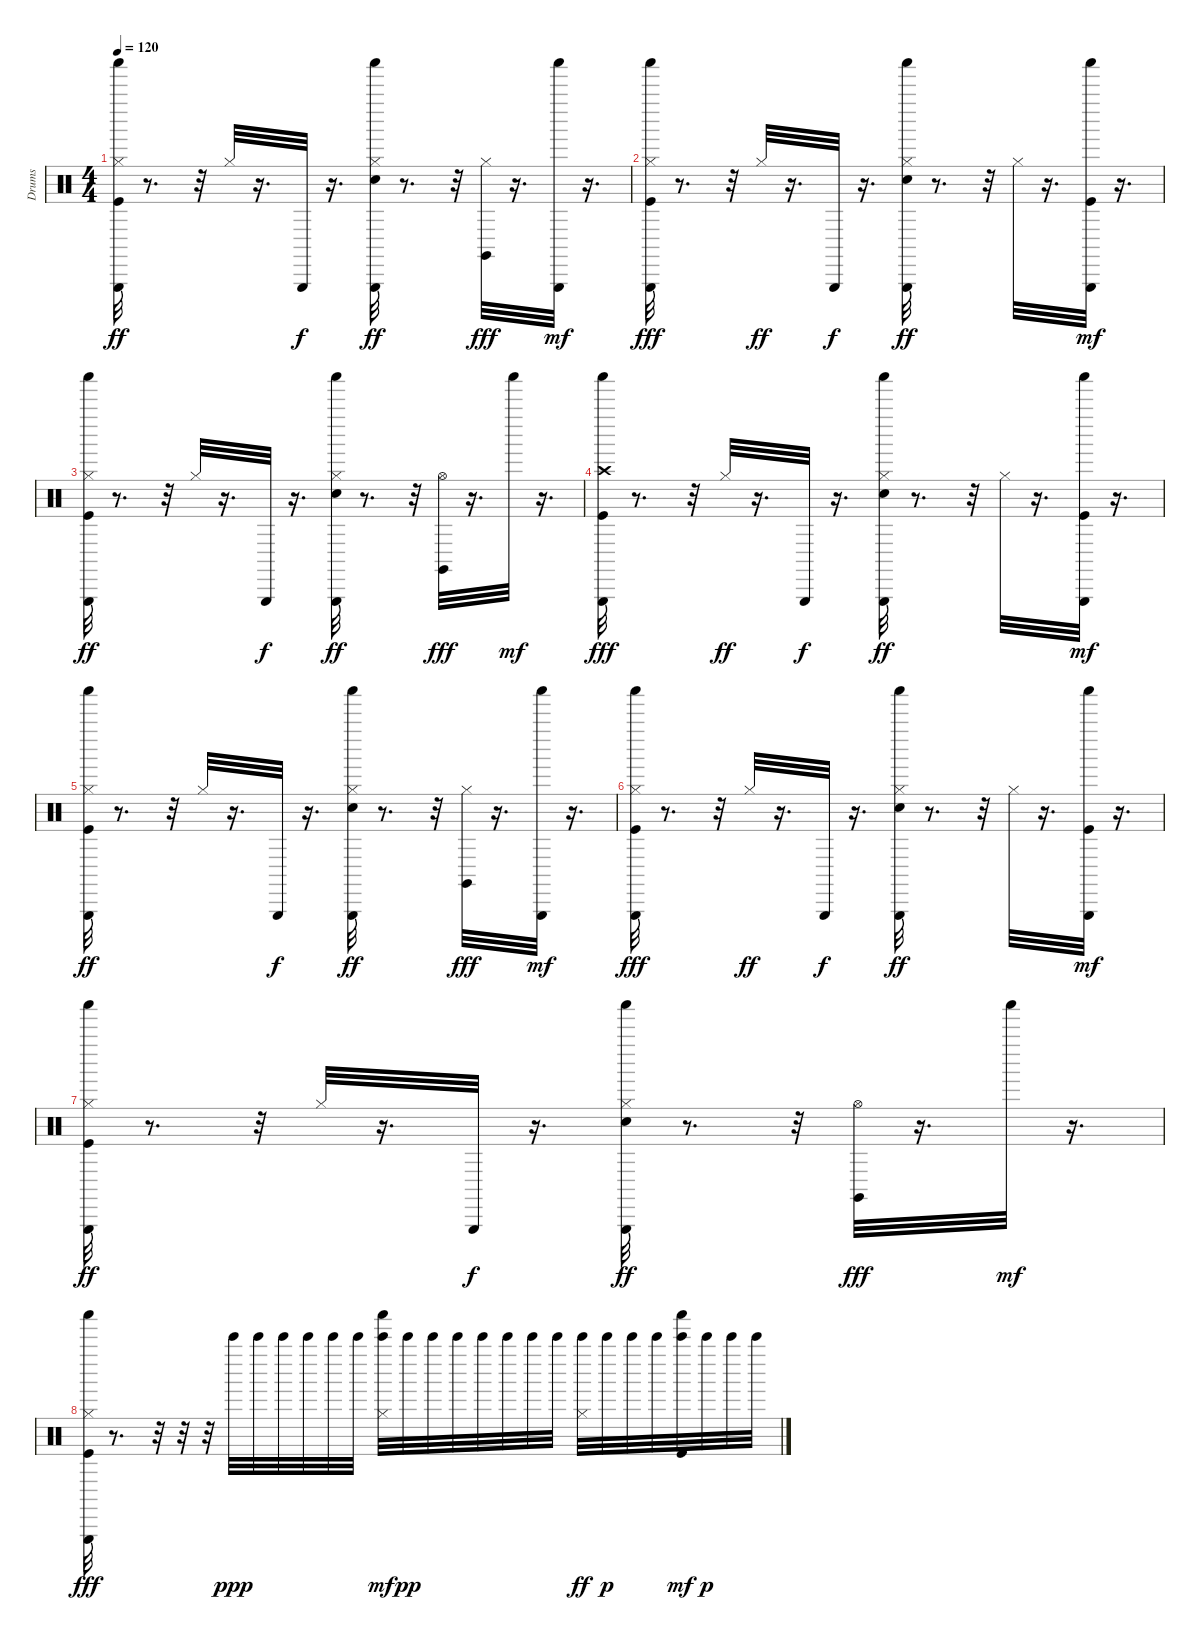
\track ("Drums" "Drums") {instrument percussion}
\staff {score}
\articulation defaults
\ts (4 4)
\tempo 120
\clef neutral
\ks c
("Shaker (hit)" "Triangle (hit)" "Kick (hit)" "Hi-Hat (closed)").32{dy ff} r.8{d} r.32 "Hi-Hat (closed)".32 r.16{d} "Triangle (hit)".32{dy f} r.16{d} ("Shaker (hit)" "Triangle (hit)" "Electric Snare (hit)" "Hi-Hat (closed)").32{dy ff} r.8{d} r.32 ("Hi-Hat (closed)" "Claves (hit)").32{dy fff} r.16{d} ("Shaker (hit)" "Triangle (hit)").32{dy mf} r.16{d} |
("Shaker (hit)" "Triangle (hit)" "Hi-Hat (closed)" "Kick (hit)").32{dy fff} r.8{d} r.32 "Hi-Hat (closed)".32{dy ff} r.16{d} "Triangle (hit)".32{dy f} r.16{d} ("Shaker (hit)" "Triangle (hit)" "Electric Snare (hit)" "Hi-Hat (closed)").32{dy ff} r.8{d} r.32 "Hi-Hat (closed)".32 r.16{d} ("Kick (hit)" "Shaker (hit)" "Triangle (hit)").32{dy mf} r.16{d} |
("Shaker (hit)" "Triangle (hit)" "Kick (hit)" "Hi-Hat (closed)").32{dy ff} r.8{d} r.32 "Hi-Hat (closed)".32 r.16{d} "Triangle (hit)".32{dy f} r.16{d} ("Shaker (hit)" "Triangle (hit)" "Electric Snare (hit)" "Hi-Hat (closed)").32{dy ff} r.8{d} r.32 ("Hi-Hat (open)" "Claves (hit)").32{dy fff} r.16{d} "Shaker (hit)".32{dy mf} r.16{d} |
("Crash high (hit)" "Shaker (hit)" "Triangle (hit)" "Kick (hit)").32{dy fff} r.8{d} r.32 "Hi-Hat (closed)".32{dy ff} r.16{d} "Triangle (hit)".32{dy f} r.16{d} ("Shaker (hit)" "Triangle (hit)" "Electric Snare (hit)" "Hi-Hat (closed)").32{dy ff} r.8{d} r.32 "Hi-Hat (closed)".32 r.16{d} ("Kick (hit)" "Shaker (hit)" "Triangle (hit)").32{dy mf} r.16{d} |
("Shaker (hit)" "Triangle (hit)" "Kick (hit)" "Hi-Hat (closed)").32{dy ff} r.8{d} r.32 "Hi-Hat (closed)".32 r.16{d} "Triangle (hit)".32{dy f} r.16{d} ("Shaker (hit)" "Triangle (hit)" "Electric Snare (hit)" "Hi-Hat (closed)").32{dy ff} r.8{d} r.32 ("Hi-Hat (closed)" "Claves (hit)").32{dy fff} r.16{d} ("Shaker (hit)" "Triangle (hit)").32{dy mf} r.16{d} |
("Shaker (hit)" "Triangle (hit)" "Hi-Hat (closed)" "Kick (hit)").32{dy fff} r.8{d} r.32 "Hi-Hat (closed)".32{dy ff} r.16{d} "Triangle (hit)".32{dy f} r.16{d} ("Shaker (hit)" "Triangle (hit)" "Electric Snare (hit)" "Hi-Hat (closed)").32{dy ff} r.8{d} r.32 "Hi-Hat (closed)".32 r.16{d} ("Kick (hit)" "Shaker (hit)" "Triangle (hit)").32{dy mf} r.16{d} |
("Shaker (hit)" "Triangle (hit)" "Kick (hit)" "Hi-Hat (closed)").32{dy ff} r.8{d} r.32 "Hi-Hat (closed)".32 r.16{d} "Triangle (hit)".32{dy f} r.16{d} ("Shaker (hit)" "Triangle (hit)" "Electric Snare (hit)" "Hi-Hat (closed)").32{dy ff} r.8{d} r.32 ("Hi-Hat (open)" "Claves (hit)").32{dy fff} r.16{d} "Shaker (hit)".32{dy mf} r.16{d} |
("Shaker (hit)" "Triangle (hit)" "Hi-Hat (closed)" "Kick (hit)").32{dy fff} r.8{d} r.32 r.32 r.32 "Bell Tree (hit)".32{dy ppp} "Bell Tree (hit)".32 "Bell Tree (hit)".32 "Bell Tree (hit)".32 "Bell Tree (hit)".32 "Bell Tree (hit)".32 ("Bell Tree (hit)" "Hi-Hat (closed)" "Shaker (hit)").32{dy mf} "Bell Tree (hit)".32{dy pp} "Bell Tree (hit)".32 "Bell Tree (hit)".32 "Bell Tree (hit)".32 "Bell Tree (hit)".32 "Bell Tree (hit)".32 "Bell Tree (hit)".32 ("Bell Tree (hit)" "Hi-Hat (closed)").32{dy ff} "Bell Tree (hit)".32{dy p} "Bell Tree (hit)".32 "Bell Tree (hit)".32 ("Bell Tree (hit)" "Kick (hit)" "Shaker (hit)").32{dy mf} "Bell Tree (hit)".32{dy p} "Bell Tree (hit)".32 "Bell Tree (hit)".32
